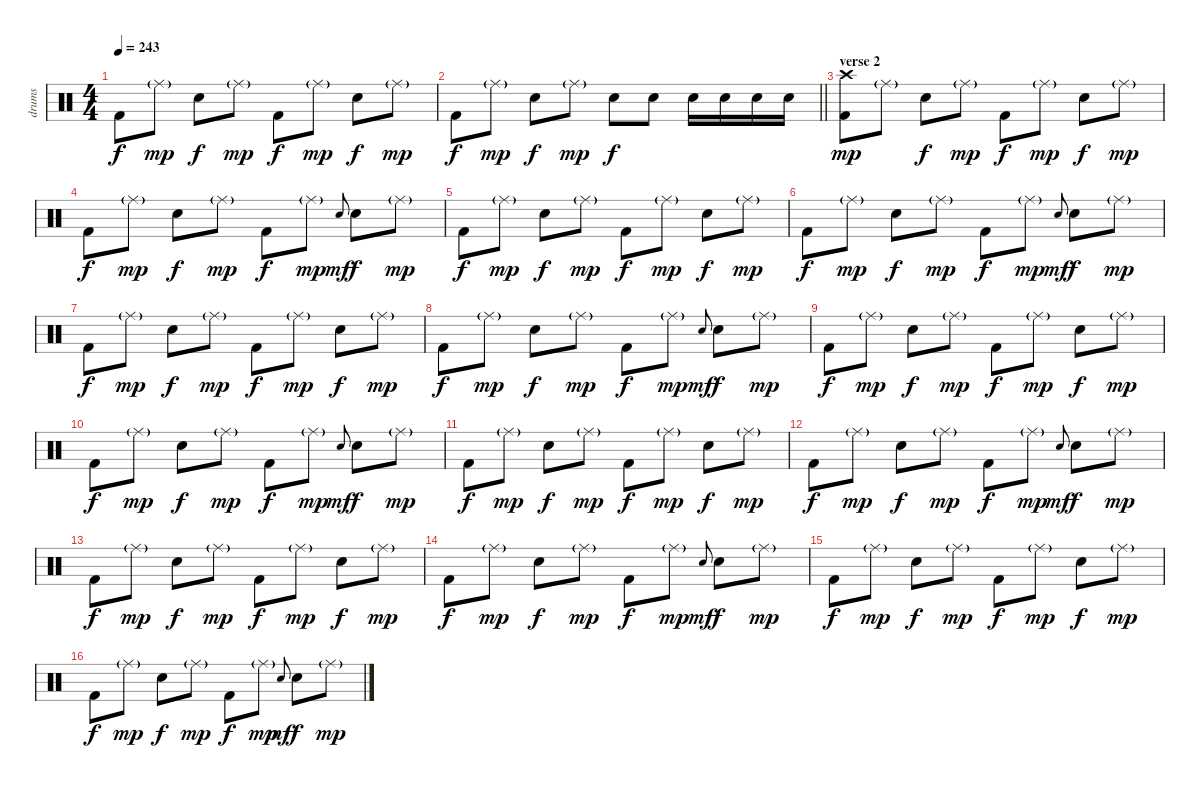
\track ("drums" "drums") {instrument percussion}
\staff {score}
\articulation defaults
\ts (4 4)
\tempo 243
\clef neutral
\ks c "Kick (hit) 2".8{dy f} "Ride (middle)"{g}.8{dy mp} "Electric Snare (hit)".8{dy f} "Ride (middle)"{g}.8{dy mp} "Kick (hit) 2".8{dy f} "Ride (middle)"{g}.8{dy mp} "Electric Snare (hit)".8{dy f} "Ride (middle)"{g}.8{dy mp}
|
\barLineRight lightlight "Kick (hit) 2".8{dy f} "Ride (middle)"{g}.8{dy mp} "Electric Snare (hit)".8{dy f} "Ride (middle)"{g}.8{dy mp} "Electric Snare (hit)".8{dy f} "Electric Snare (hit)".8 "Electric Snare (hit)".16 "Electric Snare (hit)".16 "Electric Snare (hit)".16 "Electric Snare (hit)".16
|
\section ("" "verse 2")
("Kick (hit) 2" "Crash high (hit)").8{dy mp} "Ride (middle)"{g}.8 "Electric Snare (hit)".8{dy f} "Ride (middle)"{g}.8{dy mp} "Kick (hit) 2".8{dy f} "Ride (middle)"{g}.8{dy mp} "Electric Snare (hit)".8{dy f} "Ride (middle)"{g}.8{dy mp} |
"Kick (hit) 2".8{dy f} "Ride (middle)"{g}.8{dy mp} "Electric Snare (hit)".8{dy f} "Ride (middle)"{g}.8{dy mp} "Kick (hit) 2".8{dy f} "Ride (middle)"{g}.8{dy mp} "Electric Snare (hit)"{x}.8{gr onbeat dy mf} "Electric Snare (hit)".8{dy f} "Ride (middle)"{g}.8{dy mp} |
"Kick (hit) 2".8{dy f} "Ride (middle)"{g}.8{dy mp} "Electric Snare (hit)".8{dy f} "Ride (middle)"{g}.8{dy mp} "Kick (hit) 2".8{dy f} "Ride (middle)"{g}.8{dy mp} "Electric Snare (hit)".8{dy f} "Ride (middle)"{g}.8{dy mp} |
"Kick (hit) 2".8{dy f} "Ride (middle)"{g}.8{dy mp} "Electric Snare (hit)".8{dy f} "Ride (middle)"{g}.8{dy mp} "Kick (hit) 2".8{dy f} "Ride (middle)"{g}.8{dy mp} "Electric Snare (hit)"{x}.8{gr onbeat dy mf} "Electric Snare (hit)".8{dy f} "Ride (middle)"{g}.8{dy mp} |
"Kick (hit) 2".8{dy f} "Ride (middle)"{g}.8{dy mp} "Electric Snare (hit)".8{dy f} "Ride (middle)"{g}.8{dy mp} "Kick (hit) 2".8{dy f} "Ride (middle)"{g}.8{dy mp} "Electric Snare (hit)".8{dy f} "Ride (middle)"{g}.8{dy mp} |
"Kick (hit) 2".8{dy f} "Ride (middle)"{g}.8{dy mp} "Electric Snare (hit)".8{dy f} "Ride (middle)"{g}.8{dy mp} "Kick (hit) 2".8{dy f} "Ride (middle)"{g}.8{dy mp} "Electric Snare (hit)"{x}.8{gr onbeat dy mf} "Electric Snare (hit)".8{dy f} "Ride (middle)"{g}.8{dy mp} |
"Kick (hit) 2".8{dy f} "Ride (middle)"{g}.8{dy mp} "Electric Snare (hit)".8{dy f} "Ride (middle)"{g}.8{dy mp} "Kick (hit) 2".8{dy f} "Ride (middle)"{g}.8{dy mp} "Electric Snare (hit)".8{dy f} "Ride (middle)"{g}.8{dy mp} |
"Kick (hit) 2".8{dy f} "Ride (middle)"{g}.8{dy mp} "Electric Snare (hit)".8{dy f} "Ride (middle)"{g}.8{dy mp} "Kick (hit) 2".8{dy f} "Ride (middle)"{g}.8{dy mp} "Electric Snare (hit)"{x}.8{gr onbeat dy mf} "Electric Snare (hit)".8{dy f} "Ride (middle)"{g}.8{dy mp} |
"Kick (hit) 2".8{dy f} "Ride (middle)"{g}.8{dy mp} "Electric Snare (hit)".8{dy f} "Ride (middle)"{g}.8{dy mp} "Kick (hit) 2".8{dy f} "Ride (middle)"{g}.8{dy mp} "Electric Snare (hit)".8{dy f} "Ride (middle)"{g}.8{dy mp} |
"Kick (hit) 2".8{dy f} "Ride (middle)"{g}.8{dy mp} "Electric Snare (hit)".8{dy f} "Ride (middle)"{g}.8{dy mp} "Kick (hit) 2".8{dy f} "Ride (middle)"{g}.8{dy mp} "Electric Snare (hit)"{x}.8{gr onbeat dy mf} "Electric Snare (hit)".8{dy f} "Ride (middle)"{g}.8{dy mp} |
"Kick (hit) 2".8{dy f} "Ride (middle)"{g}.8{dy mp} "Electric Snare (hit)".8{dy f} "Ride (middle)"{g}.8{dy mp} "Kick (hit) 2".8{dy f} "Ride (middle)"{g}.8{dy mp} "Electric Snare (hit)".8{dy f} "Ride (middle)"{g}.8{dy mp} |
"Kick (hit) 2".8{dy f} "Ride (middle)"{g}.8{dy mp} "Electric Snare (hit)".8{dy f} "Ride (middle)"{g}.8{dy mp} "Kick (hit) 2".8{dy f} "Ride (middle)"{g}.8{dy mp} "Electric Snare (hit)"{x}.8{gr onbeat dy mf} "Electric Snare (hit)".8{dy f} "Ride (middle)"{g}.8{dy mp} |
"Kick (hit) 2".8{dy f} "Ride (middle)"{g}.8{dy mp} "Electric Snare (hit)".8{dy f} "Ride (middle)"{g}.8{dy mp} "Kick (hit) 2".8{dy f} "Ride (middle)"{g}.8{dy mp} "Electric Snare (hit)".8{dy f} "Ride (middle)"{g}.8{dy mp} |
"Kick (hit) 2".8{dy f} "Ride (middle)"{g}.8{dy mp} "Electric Snare (hit)".8{dy f} "Ride (middle)"{g}.8{dy mp} "Kick (hit) 2".8{dy f} "Ride (middle)"{g}.8{dy mp} "Electric Snare (hit)"{x}.8{gr onbeat dy mf} "Electric Snare (hit)".8{dy f} "Ride (middle)"{g}.8{dy mp}
